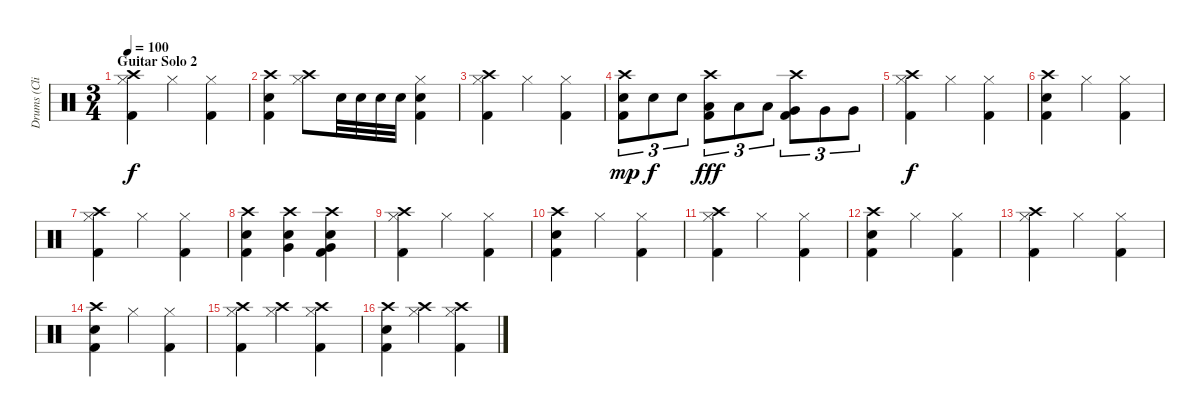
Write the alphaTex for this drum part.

\track ("Drums (Clive Bunker)" "Drums (Cli") {instrument percussion}
\staff {score}
\articulation defaults
\ts (3 4)
\section ("" "Guitar Solo 2")
\tempo 100
\clef neutral
\ks c
("Crash high (hit)" "Hi-Hat (closed)" "Kick (hit) 2").4{dy f} "Hi-Hat (closed)".4 ("Hi-Hat (closed)" "Kick (hit) 2").4 |
("Crash high (hit)" "Snare (hit) 2" "Kick (hit) 2").4 ("Crash high (hit)" "Hi-Hat (closed)").8 "Snare (hit) 2".32 "Snare (hit) 2".32 "Snare (hit) 2".32 "Snare (hit) 2".32 ("Hi-Hat (closed)" "Snare (hit) 2" "Kick (hit) 2").4 |
("Crash high (hit)" "Hi-Hat (closed)" "Kick (hit) 2").4 "Hi-Hat (closed)".4 ("Hi-Hat (closed)" "Kick (hit) 2").4 |
("Crash high (hit)" "Snare (hit) 2" "Kick (hit) 2").8{tu (3 2) dy mp} "Snare (hit) 2".8{tu (3 2) dy f} "Snare (hit) 2".8{tu (3 2)} ("Crash high (hit)" "Low Tom (hit)" "Kick (hit) 2").8{tu (3 2) dy fff} "Low Tom (hit)".8{tu (3 2)} "Low Tom (hit)".8{tu (3 2)} ("Crash high (hit)" "Very Low Tom (hit)" "Kick (hit) 2").8{tu (3 2)} "Very Low Tom (hit)".8{tu (3 2)} "Very Low Tom (hit)".8{tu (3 2)} |
("Crash high (hit)" "Hi-Hat (closed)" "Kick (hit) 2").4{dy f} "Hi-Hat (closed)".4 ("Hi-Hat (closed)" "Kick (hit) 2").4 |
("Crash high (hit)" "Snare (hit) 2" "Kick (hit) 2").4 "Hi-Hat (closed)".4 ("Hi-Hat (closed)" "Kick (hit) 2").4 |
("Crash high (hit)" "Hi-Hat (closed)" "Kick (hit) 2").4 "Hi-Hat (closed)".4 ("Hi-Hat (closed)" "Kick (hit) 2").4 |
("Crash high (hit)" "Snare (hit) 2" "Kick (hit) 2").4 ("Crash high (hit)" "Snare (hit) 2" "Very Low Tom (hit)").4 ("Crash high (hit)" "Snare (hit) 2" "Very Low Tom (hit)" "Kick (hit) 2").4 |
("Crash high (hit)" "Hi-Hat (closed)" "Kick (hit) 2").4 "Hi-Hat (closed)".4 ("Hi-Hat (closed)" "Kick (hit) 2").4 |
("Crash high (hit)" "Snare (hit) 2" "Kick (hit) 2").4 "Hi-Hat (closed)".4 ("Hi-Hat (closed)" "Kick (hit) 2").4 |
("Crash high (hit)" "Hi-Hat (closed)" "Kick (hit) 2").4 "Hi-Hat (closed)".4 ("Hi-Hat (closed)" "Kick (hit) 2").4 |
("Crash high (hit)" "Snare (hit) 2" "Kick (hit) 2").4 "Hi-Hat (closed)".4 ("Hi-Hat (closed)" "Kick (hit) 2").4 |
("Crash high (hit)" "Hi-Hat (closed)" "Kick (hit) 2").4 "Hi-Hat (closed)".4 ("Hi-Hat (closed)" "Kick (hit) 2").4 |
("Crash high (hit)" "Snare (hit) 2" "Kick (hit) 2").4 "Hi-Hat (closed)".4 ("Hi-Hat (closed)" "Kick (hit) 2").4 |
("Crash high (hit)" "Hi-Hat (closed)" "Kick (hit) 2").4 ("Crash high (hit)" "Hi-Hat (closed)").4 ("Crash high (hit)" "Hi-Hat (closed)" "Kick (hit) 2").4 |
("Crash high (hit)" "Snare (hit) 2" "Kick (hit) 2").4 ("Crash high (hit)" "Hi-Hat (closed)").4 ("Crash high (hit)" "Hi-Hat (closed)" "Kick (hit) 2").4
